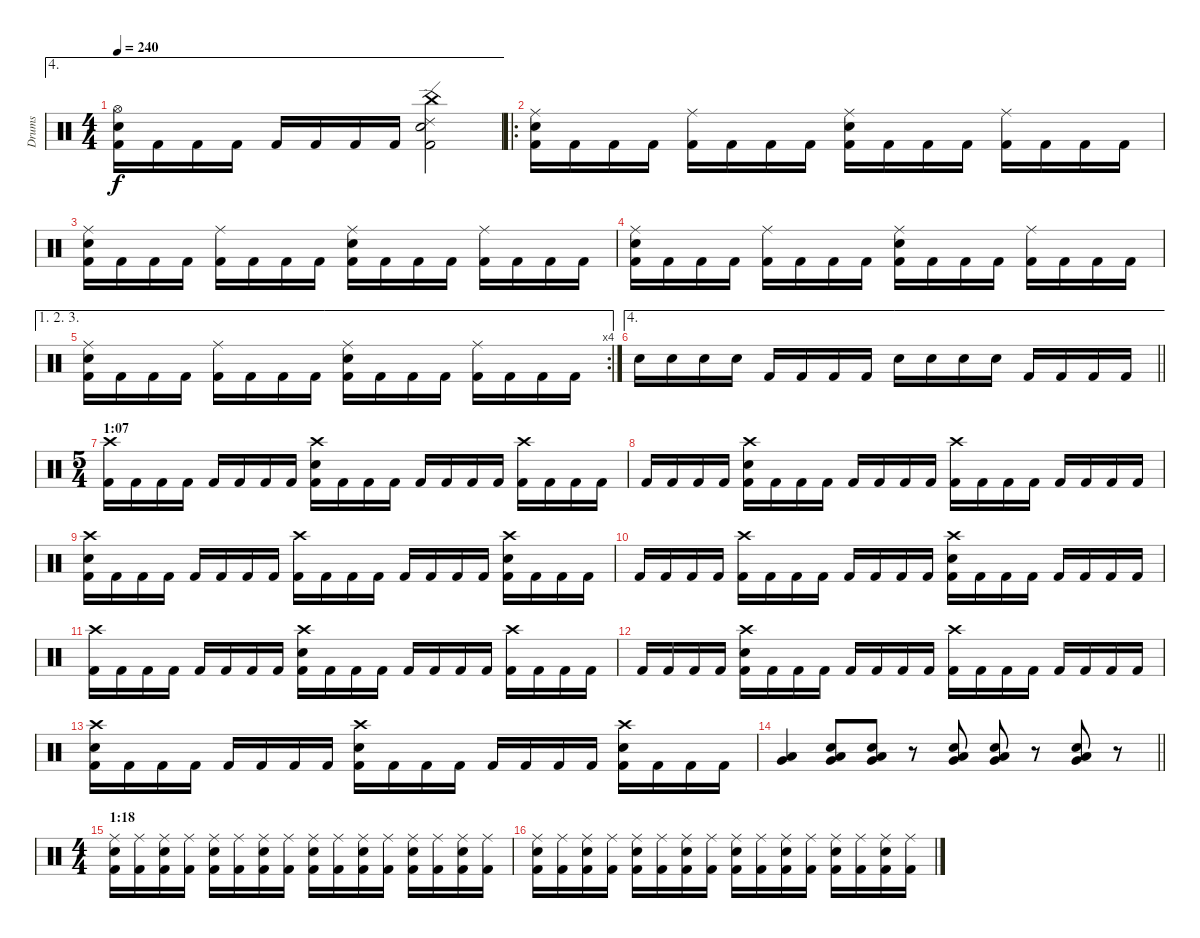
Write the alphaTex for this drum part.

\track ("Drums" "Drums") {instrument percussion}
\staff {score}
\articulation defaults
\ae 4
\ts (4 4)
\tempo 240
\clef neutral
\ks c
("Hi-Hat (open)" "Electric Snare (hit)" "Kick (hit) 2").16{dy f} "Kick (hit) 2".16 "Kick (hit) 2".16 "Kick (hit) 2".16 "Kick (hit) 2".16 "Kick (hit) 2".16 "Kick (hit) 2".16 "Kick (hit) 2".16 ("China (hit)" "Ride (edge) 2" "Electric Snare (hit)" "Kick (hit) 2").2 |
\ro
("Ride (middle)" "Electric Snare (hit)" "Kick (hit) 2").16 "Kick (hit) 2".16 "Kick (hit) 2".16 "Kick (hit) 2".16 ("Ride (middle)" "Kick (hit) 2").16 "Kick (hit) 2".16 "Kick (hit) 2".16 "Kick (hit) 2".16 ("Ride (middle)" "Electric Snare (hit)" "Kick (hit) 2").16 "Kick (hit) 2".16 "Kick (hit) 2".16 "Kick (hit) 2".16 ("Ride (middle)" "Kick (hit) 2").16 "Kick (hit) 2".16 "Kick (hit) 2".16 "Kick (hit) 2".16 |
("Ride (middle)" "Electric Snare (hit)" "Kick (hit) 2").16 "Kick (hit) 2".16 "Kick (hit) 2".16 "Kick (hit) 2".16 ("Ride (middle)" "Kick (hit) 2").16 "Kick (hit) 2".16 "Kick (hit) 2".16 "Kick (hit) 2".16 ("Ride (middle)" "Electric Snare (hit)" "Kick (hit) 2").16 "Kick (hit) 2".16 "Kick (hit) 2".16 "Kick (hit) 2".16 ("Ride (middle)" "Kick (hit) 2").16 "Kick (hit) 2".16 "Kick (hit) 2".16 "Kick (hit) 2".16 |
("Ride (middle)" "Electric Snare (hit)" "Kick (hit) 2").16 "Kick (hit) 2".16 "Kick (hit) 2".16 "Kick (hit) 2".16 ("Ride (middle)" "Kick (hit) 2").16 "Kick (hit) 2".16 "Kick (hit) 2".16 "Kick (hit) 2".16 ("Ride (middle)" "Electric Snare (hit)" "Kick (hit) 2").16 "Kick (hit) 2".16 "Kick (hit) 2".16 "Kick (hit) 2".16 ("Ride (middle)" "Kick (hit) 2").16 "Kick (hit) 2".16 "Kick (hit) 2".16 "Kick (hit) 2".16 |
\ae (1 2 3)
\rc 4
("Ride (middle)" "Electric Snare (hit)" "Kick (hit) 2").16 "Kick (hit) 2".16 "Kick (hit) 2".16 "Kick (hit) 2".16 ("Ride (middle)" "Kick (hit) 2").16 "Kick (hit) 2".16 "Kick (hit) 2".16 "Kick (hit) 2".16 ("Ride (middle)" "Electric Snare (hit)" "Kick (hit) 2").16 "Kick (hit) 2".16 "Kick (hit) 2".16 "Kick (hit) 2".16 ("Ride (middle)" "Kick (hit) 2").16 "Kick (hit) 2".16 "Kick (hit) 2".16 "Kick (hit) 2".16 |
\ae 4
\barLineRight lightlight "Electric Snare (hit)".16 "Electric Snare (hit)".16 "Electric Snare (hit)".16 "Electric Snare (hit)".16 "Kick (hit) 2".16 "Kick (hit) 2".16 "Kick (hit) 2".16 "Kick (hit) 2".16 "Electric Snare (hit)".16 "Electric Snare (hit)".16 "Electric Snare (hit)".16 "Electric Snare (hit)".16 "Kick (hit) 2".16 "Kick (hit) 2".16 "Kick (hit) 2".16 "Kick (hit) 2".16
|
\ts (5 4)
\section ("" "1:07")
("Crash high (hit)" "Kick (hit) 2").16 "Kick (hit) 2".16 "Kick (hit) 2".16 "Kick (hit) 2".16 "Kick (hit) 2".16 "Kick (hit) 2".16 "Kick (hit) 2".16 "Kick (hit) 2".16 ("Crash high (hit)" "Electric Snare (hit)" "Kick (hit) 2").16 "Kick (hit) 2".16 "Kick (hit) 2".16 "Kick (hit) 2".16 "Kick (hit) 2".16 "Kick (hit) 2".16 "Kick (hit) 2".16 "Kick (hit) 2".16 ("Crash high (hit)" "Kick (hit) 2").16 "Kick (hit) 2".16 "Kick (hit) 2".16 "Kick (hit) 2".16 |
"Kick (hit) 2".16 "Kick (hit) 2".16 "Kick (hit) 2".16 "Kick (hit) 2".16 ("Crash high (hit)" "Electric Snare (hit)" "Kick (hit) 2").16 "Kick (hit) 2".16 "Kick (hit) 2".16 "Kick (hit) 2".16 "Kick (hit) 2".16 "Kick (hit) 2".16 "Kick (hit) 2".16 "Kick (hit) 2".16 ("Crash high (hit)" "Kick (hit) 2").16 "Kick (hit) 2".16 "Kick (hit) 2".16 "Kick (hit) 2".16 "Kick (hit) 2".16 "Kick (hit) 2".16 "Kick (hit) 2".16 "Kick (hit) 2".16 |
("Crash high (hit)" "Electric Snare (hit)" "Kick (hit) 2").16 "Kick (hit) 2".16 "Kick (hit) 2".16 "Kick (hit) 2".16 "Kick (hit) 2".16 "Kick (hit) 2".16 "Kick (hit) 2".16 "Kick (hit) 2".16 ("Crash high (hit)" "Kick (hit) 2").16 "Kick (hit) 2".16 "Kick (hit) 2".16 "Kick (hit) 2".16 "Kick (hit) 2".16 "Kick (hit) 2".16 "Kick (hit) 2".16 "Kick (hit) 2".16 ("Crash high (hit)" "Electric Snare (hit)" "Kick (hit) 2").16 "Kick (hit) 2".16 "Kick (hit) 2".16 "Kick (hit) 2".16 |
"Kick (hit) 2".16 "Kick (hit) 2".16 "Kick (hit) 2".16 "Kick (hit) 2".16 ("Crash high (hit)" "Kick (hit) 2").16 "Kick (hit) 2".16 "Kick (hit) 2".16 "Kick (hit) 2".16 "Kick (hit) 2".16 "Kick (hit) 2".16 "Kick (hit) 2".16 "Kick (hit) 2".16 ("Crash high (hit)" "Electric Snare (hit)" "Kick (hit) 2").16 "Kick (hit) 2".16 "Kick (hit) 2".16 "Kick (hit) 2".16 "Kick (hit) 2".16 "Kick (hit) 2".16 "Kick (hit) 2".16 "Kick (hit) 2".16 |
("Crash high (hit)" "Kick (hit) 2").16 "Kick (hit) 2".16 "Kick (hit) 2".16 "Kick (hit) 2".16 "Kick (hit) 2".16 "Kick (hit) 2".16 "Kick (hit) 2".16 "Kick (hit) 2".16 ("Crash high (hit)" "Electric Snare (hit)" "Kick (hit) 2").16 "Kick (hit) 2".16 "Kick (hit) 2".16 "Kick (hit) 2".16 "Kick (hit) 2".16 "Kick (hit) 2".16 "Kick (hit) 2".16 "Kick (hit) 2".16 ("Crash high (hit)" "Kick (hit) 2").16 "Kick (hit) 2".16 "Kick (hit) 2".16 "Kick (hit) 2".16 |
"Kick (hit) 2".16 "Kick (hit) 2".16 "Kick (hit) 2".16 "Kick (hit) 2".16 ("Crash high (hit)" "Electric Snare (hit)" "Kick (hit) 2").16 "Kick (hit) 2".16 "Kick (hit) 2".16 "Kick (hit) 2".16 "Kick (hit) 2".16 "Kick (hit) 2".16 "Kick (hit) 2".16 "Kick (hit) 2".16 ("Crash high (hit)" "Kick (hit) 2").16 "Kick (hit) 2".16 "Kick (hit) 2".16 "Kick (hit) 2".16 "Kick (hit) 2".16 "Kick (hit) 2".16 "Kick (hit) 2".16 "Kick (hit) 2".16 |
("Crash high (hit)" "Electric Snare (hit)" "Kick (hit) 2").16 "Kick (hit) 2".16 "Kick (hit) 2".16 "Kick (hit) 2".16 "Kick (hit) 2".16 "Kick (hit) 2".16 "Kick (hit) 2".16 "Kick (hit) 2".16 ("Crash high (hit)" "Electric Snare (hit)" "Kick (hit) 2").16 "Kick (hit) 2".16 "Kick (hit) 2".16 "Kick (hit) 2".16 "Kick (hit) 2".16 "Kick (hit) 2".16 "Kick (hit) 2".16 "Kick (hit) 2".16 ("Crash high (hit)" "Electric Snare (hit)" "Kick (hit) 2").16 "Kick (hit) 2".16 "Kick (hit) 2".16 "Kick (hit) 2".16 |
\barLineRight lightlight
("Low Tom (hit)" "Very Low Tom (hit)").4 ("Electric Snare (hit)" "Low Tom (hit)" "Very Low Tom (hit)").8 ("Electric Snare (hit)" "Low Tom (hit)" "Very Low Tom (hit)").8 r.8 ("Electric Snare (hit)" "Low Tom (hit)" "Very Low Tom (hit)").8 ("Electric Snare (hit)" "Low Tom (hit)" "Very Low Tom (hit)").8 r.8 ("Electric Snare (hit)" "Low Tom (hit)" "Very Low Tom (hit)").8 r.8 |
\ts (4 4)
\section ("" "1:18")
("Ride (middle)" "Electric Snare (hit)" "Kick (hit) 2").16 ("Ride (middle)" "Kick (hit) 2").16 ("Ride (middle)" "Electric Snare (hit)" "Kick (hit) 2").16 ("Ride (middle)" "Kick (hit) 2").16 ("Ride (middle)" "Electric Snare (hit)" "Kick (hit) 2").16 ("Ride (middle)" "Kick (hit) 2").16 ("Ride (middle)" "Electric Snare (hit)" "Kick (hit) 2").16 ("Ride (middle)" "Kick (hit) 2").16 ("Ride (middle)" "Electric Snare (hit)" "Kick (hit) 2").16 ("Ride (middle)" "Kick (hit) 2").16 ("Ride (middle)" "Electric Snare (hit)" "Kick (hit) 2").16 ("Ride (middle)" "Kick (hit) 2").16 ("Ride (middle)" "Electric Snare (hit)" "Kick (hit) 2").16 ("Ride (middle)" "Kick (hit) 2").16 ("Ride (middle)" "Electric Snare (hit)" "Kick (hit) 2").16 ("Ride (middle)" "Kick (hit) 2").16 |
("Ride (middle)" "Electric Snare (hit)" "Kick (hit) 2").16 ("Ride (middle)" "Kick (hit) 2").16 ("Ride (middle)" "Electric Snare (hit)" "Kick (hit) 2").16 ("Ride (middle)" "Kick (hit) 2").16 ("Ride (middle)" "Electric Snare (hit)" "Kick (hit) 2").16 ("Ride (middle)" "Kick (hit) 2").16 ("Ride (middle)" "Electric Snare (hit)" "Kick (hit) 2").16 ("Ride (middle)" "Kick (hit) 2").16 ("Ride (middle)" "Electric Snare (hit)" "Kick (hit) 2").16 ("Ride (middle)" "Kick (hit) 2").16 ("Ride (middle)" "Electric Snare (hit)" "Kick (hit) 2").16 ("Ride (middle)" "Kick (hit) 2").16 ("Ride (middle)" "Electric Snare (hit)" "Kick (hit) 2").16 ("Ride (middle)" "Kick (hit) 2").16 ("Ride (middle)" "Electric Snare (hit)" "Kick (hit) 2").16 ("Ride (middle)" "Kick (hit) 2").16
